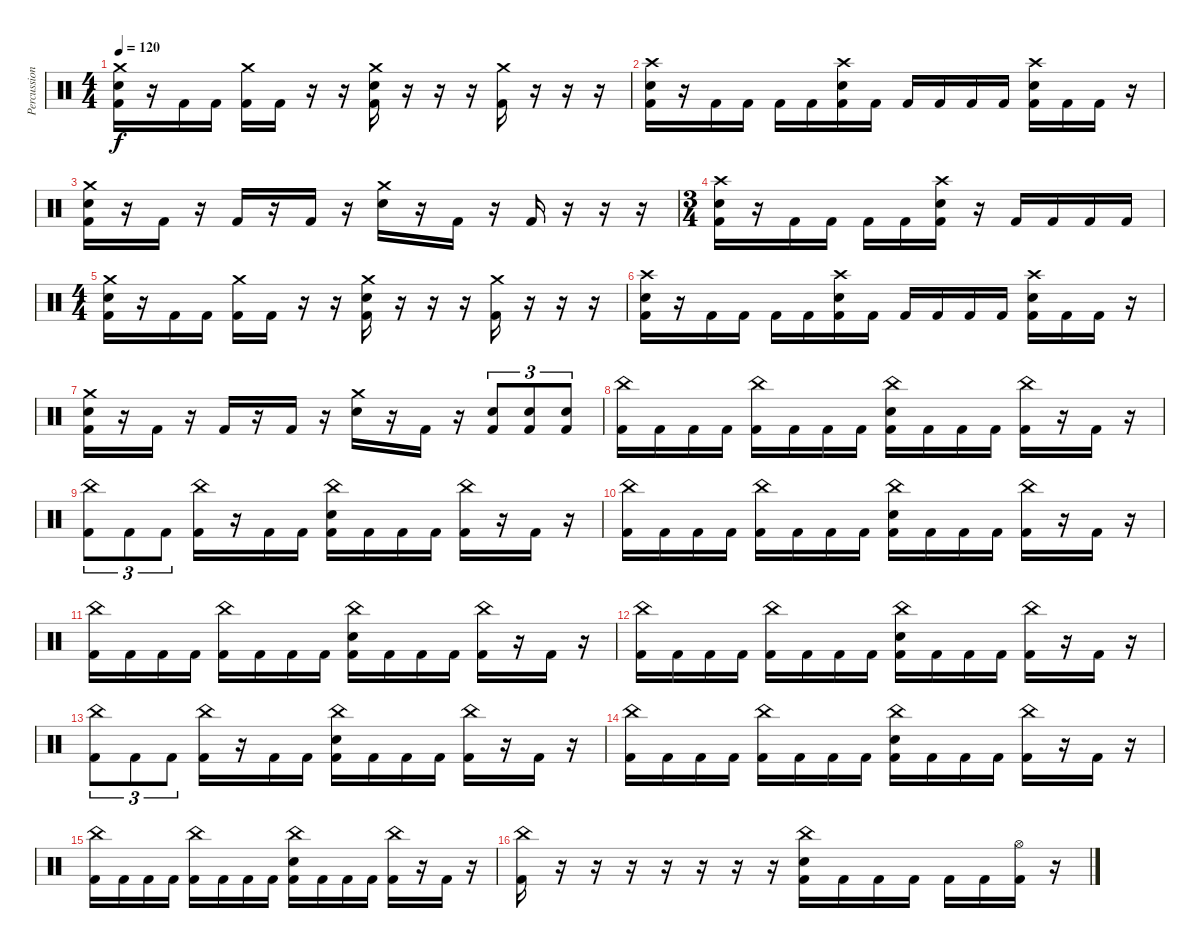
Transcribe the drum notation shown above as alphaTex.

\track ("Percussion" "Percussion") {instrument percussion}
\staff {score}
\articulation defaults
\ts (4 4)
\tempo 120
\clef neutral
\ks c
("Crash medium (hit)" "Electric Snare (hit)" "Kick (hit) 2").16{dy f} r.16 "Kick (hit) 2".16 "Kick (hit) 2".16 ("Crash medium (hit)" "Kick (hit) 2").16 "Kick (hit) 2".16 r.16 r.16 ("Crash medium (hit)" "Electric Snare (hit)" "Kick (hit) 2").16 r.16 r.16 r.16 ("Crash medium (hit)" "Kick (hit) 2").16 r.16 r.16 r.16 |
("Crash high (hit)" "Electric Snare (hit)" "Kick (hit) 2").16 r.16 "Kick (hit) 2".16 "Kick (hit) 2".16 "Kick (hit) 2".16 "Kick (hit) 2".16 ("Crash high (hit)" "Electric Snare (hit)" "Kick (hit) 2").16 "Kick (hit) 2".16 "Kick (hit) 2".16 "Kick (hit) 2".16 "Kick (hit) 2".16 "Kick (hit) 2".16 ("Crash high (hit)" "Electric Snare (hit)" "Kick (hit) 2").16 "Kick (hit) 2".16 "Kick (hit) 2".16 r.16 |
("Crash medium (hit)" "Electric Snare (hit)" "Kick (hit) 2").16 r.16 "Kick (hit) 2".16 r.16 "Kick (hit) 2".16 r.16 "Kick (hit) 2".16 r.16 ("Crash medium (hit)" "Electric Snare (hit)").16 r.16 "Kick (hit) 2".16 r.16 "Kick (hit) 2".16 r.16 r.16 r.16 |
\ts (3 4)
("Crash high (hit)" "Electric Snare (hit)" "Kick (hit) 2").16 r.16 "Kick (hit) 2".16 "Kick (hit) 2".16 "Kick (hit) 2".16 "Kick (hit) 2".16 ("Crash high (hit)" "Electric Snare (hit)" "Kick (hit) 2").16 r.16 "Kick (hit) 2".16 "Kick (hit) 2".16 "Kick (hit) 2".16 "Kick (hit) 2".16 |
\ts (4 4)
("Crash medium (hit)" "Electric Snare (hit)" "Kick (hit) 2").16 r.16 "Kick (hit) 2".16 "Kick (hit) 2".16 ("Crash medium (hit)" "Kick (hit) 2").16 "Kick (hit) 2".16 r.16 r.16 ("Crash medium (hit)" "Electric Snare (hit)" "Kick (hit) 2").16 r.16 r.16 r.16 ("Crash medium (hit)" "Kick (hit) 2").16 r.16 r.16 r.16 |
("Crash high (hit)" "Electric Snare (hit)" "Kick (hit) 2").16 r.16 "Kick (hit) 2".16 "Kick (hit) 2".16 "Kick (hit) 2".16 "Kick (hit) 2".16 ("Crash high (hit)" "Electric Snare (hit)" "Kick (hit) 2").16 "Kick (hit) 2".16 "Kick (hit) 2".16 "Kick (hit) 2".16 "Kick (hit) 2".16 "Kick (hit) 2".16 ("Crash high (hit)" "Electric Snare (hit)" "Kick (hit) 2").16 "Kick (hit) 2".16 "Kick (hit) 2".16 r.16 |
("Crash medium (hit)" "Electric Snare (hit)" "Kick (hit) 2").16 r.16 "Kick (hit) 2".16 r.16 "Kick (hit) 2".16 r.16 "Kick (hit) 2".16 r.16 ("Crash medium (hit)" "Electric Snare (hit)").16 r.16 "Kick (hit) 2".16 r.16 ("Electric Snare (hit)" "Kick (hit) 2").8{tu (3 2)} ("Electric Snare (hit)" "Kick (hit) 2").8{tu (3 2)} ("Electric Snare (hit)" "Kick (hit) 2").8{tu (3 2)} |
("China (hit)" "Kick (hit) 2").16 "Kick (hit) 2".16 "Kick (hit) 2".16 "Kick (hit) 2".16 ("China (hit)" "Kick (hit) 2").16 "Kick (hit) 2".16 "Kick (hit) 2".16 "Kick (hit) 2".16 ("China (hit)" "Electric Snare (hit)" "Kick (hit) 2").16 "Kick (hit) 2".16 "Kick (hit) 2".16 "Kick (hit) 2".16 ("China (hit)" "Kick (hit) 2").16 r.16 "Kick (hit) 2".16 r.16 |
("China (hit)" "Kick (hit) 2").8{tu (3 2)} "Kick (hit) 2".8{tu (3 2)} "Kick (hit) 2".8{tu (3 2)} ("China (hit)" "Kick (hit) 2").16 r.16 "Kick (hit) 2".16 "Kick (hit) 2".16 ("China (hit)" "Electric Snare (hit)" "Kick (hit) 2").16 "Kick (hit) 2".16 "Kick (hit) 2".16 "Kick (hit) 2".16 ("China (hit)" "Kick (hit) 2").16 r.16 "Kick (hit) 2".16 r.16 |
("China (hit)" "Kick (hit) 2").16 "Kick (hit) 2".16 "Kick (hit) 2".16 "Kick (hit) 2".16 ("China (hit)" "Kick (hit) 2").16 "Kick (hit) 2".16 "Kick (hit) 2".16 "Kick (hit) 2".16 ("China (hit)" "Electric Snare (hit)" "Kick (hit) 2").16 "Kick (hit) 2".16 "Kick (hit) 2".16 "Kick (hit) 2".16 ("China (hit)" "Kick (hit) 2").16 r.16 "Kick (hit) 2".16 r.16 |
("China (hit)" "Kick (hit) 2").16 "Kick (hit) 2".16 "Kick (hit) 2".16 "Kick (hit) 2".16 ("China (hit)" "Kick (hit) 2").16 "Kick (hit) 2".16 "Kick (hit) 2".16 "Kick (hit) 2".16 ("China (hit)" "Electric Snare (hit)" "Kick (hit) 2").16 "Kick (hit) 2".16 "Kick (hit) 2".16 "Kick (hit) 2".16 ("China (hit)" "Kick (hit) 2").16 r.16 "Kick (hit) 2".16 r.16 |
("China (hit)" "Kick (hit) 2").16 "Kick (hit) 2".16 "Kick (hit) 2".16 "Kick (hit) 2".16 ("China (hit)" "Kick (hit) 2").16 "Kick (hit) 2".16 "Kick (hit) 2".16 "Kick (hit) 2".16 ("China (hit)" "Electric Snare (hit)" "Kick (hit) 2").16 "Kick (hit) 2".16 "Kick (hit) 2".16 "Kick (hit) 2".16 ("China (hit)" "Kick (hit) 2").16 r.16 "Kick (hit) 2".16 r.16 |
("China (hit)" "Kick (hit) 2").8{tu (3 2)} "Kick (hit) 2".8{tu (3 2)} "Kick (hit) 2".8{tu (3 2)} ("China (hit)" "Kick (hit) 2").16 r.16 "Kick (hit) 2".16 "Kick (hit) 2".16 ("China (hit)" "Electric Snare (hit)" "Kick (hit) 2").16 "Kick (hit) 2".16 "Kick (hit) 2".16 "Kick (hit) 2".16 ("China (hit)" "Kick (hit) 2").16 r.16 "Kick (hit) 2".16 r.16 |
("China (hit)" "Kick (hit) 2").16 "Kick (hit) 2".16 "Kick (hit) 2".16 "Kick (hit) 2".16 ("China (hit)" "Kick (hit) 2").16 "Kick (hit) 2".16 "Kick (hit) 2".16 "Kick (hit) 2".16 ("China (hit)" "Electric Snare (hit)" "Kick (hit) 2").16 "Kick (hit) 2".16 "Kick (hit) 2".16 "Kick (hit) 2".16 ("China (hit)" "Kick (hit) 2").16 r.16 "Kick (hit) 2".16 r.16 |
("China (hit)" "Kick (hit) 2").16 "Kick (hit) 2".16 "Kick (hit) 2".16 "Kick (hit) 2".16 ("China (hit)" "Kick (hit) 2").16 "Kick (hit) 2".16 "Kick (hit) 2".16 "Kick (hit) 2".16 ("China (hit)" "Electric Snare (hit)" "Kick (hit) 2").16 "Kick (hit) 2".16 "Kick (hit) 2".16 "Kick (hit) 2".16 ("China (hit)" "Kick (hit) 2").16 r.16 "Kick (hit) 2".16 r.16 |
("China (hit)" "Kick (hit) 2").16 r.16 r.16 r.16 r.16 r.16 r.16 r.16 ("China (hit)" "Electric Snare (hit)" "Kick (hit) 2").16 "Kick (hit) 2".16 "Kick (hit) 2".16 "Kick (hit) 2".16 "Kick (hit) 2".16 "Kick (hit) 2".16 ("Hi-Hat (open)" "Kick (hit) 2").16 r.16
